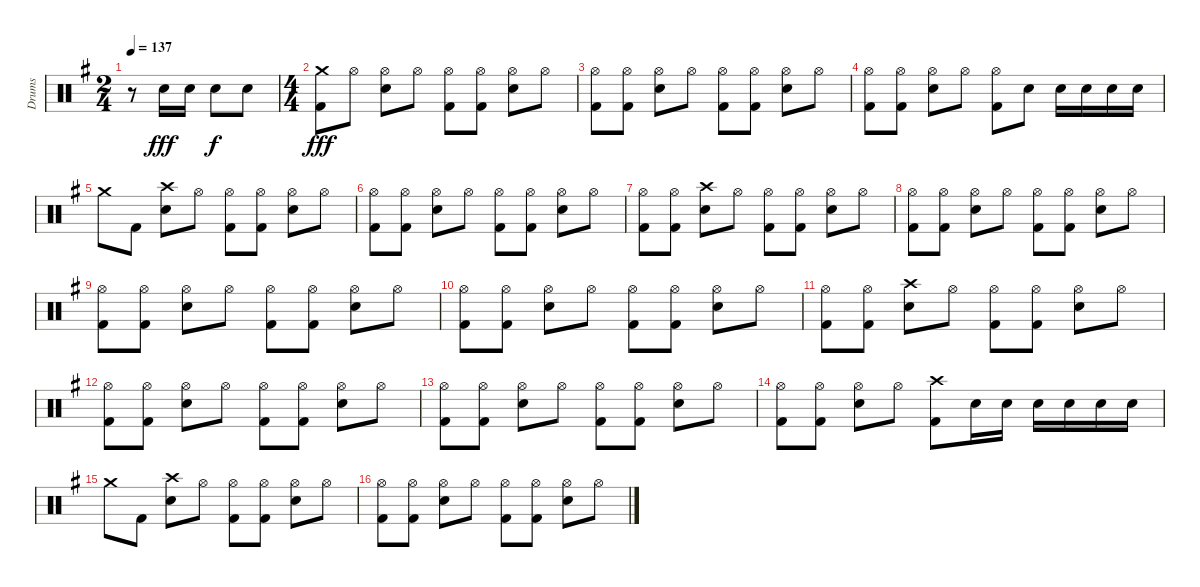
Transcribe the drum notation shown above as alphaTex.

\track ("Drums" "Drums") {instrument percussion}
\staff {score}
\articulation defaults
\ts (2 4)
\tempo 137
\clef neutral
\ks g
r.8{dy fff} "Electric Snare (hit)".16 "Electric Snare (hit)".16 "Electric Snare (hit)".8{dy f} "Electric Snare (hit)".8 |
\ts (4 4)
("Crash medium (hit)" "Kick (hit) 2").8{dy fff} "Hi-Hat (open)".8 ("Hi-Hat (open)" "Electric Snare (hit)").8 "Hi-Hat (open)".8 ("Hi-Hat (open)" "Kick (hit) 2").8 ("Hi-Hat (open)" "Kick (hit) 2").8 ("Hi-Hat (open)" "Electric Snare (hit)").8 "Hi-Hat (open)".8 |
("Hi-Hat (open)" "Kick (hit) 2").8 ("Hi-Hat (open)" "Kick (hit) 2").8 ("Hi-Hat (open)" "Electric Snare (hit)").8 "Hi-Hat (open)".8 ("Hi-Hat (open)" "Kick (hit) 2").8 ("Hi-Hat (open)" "Kick (hit) 2").8 ("Hi-Hat (open)" "Electric Snare (hit)").8 "Hi-Hat (open)".8 |
("Hi-Hat (open)" "Kick (hit) 2").8 ("Hi-Hat (open)" "Kick (hit) 2").8 ("Hi-Hat (open)" "Electric Snare (hit)").8 "Hi-Hat (open)".8 ("Hi-Hat (open)" "Kick (hit) 2").8 "Electric Snare (hit)".8 "Electric Snare (hit)".16 "Electric Snare (hit)".16 "Electric Snare (hit)".16 "Electric Snare (hit)".16 |
"Crash medium (hit)".8 "Kick (hit) 2".8 ("Crash high (hit)" "Electric Snare (hit)").8 "Hi-Hat (open)".8 ("Hi-Hat (open)" "Kick (hit) 2").8 ("Hi-Hat (open)" "Kick (hit) 2").8 ("Hi-Hat (open)" "Electric Snare (hit)").8 "Hi-Hat (open)".8 |
("Hi-Hat (open)" "Kick (hit) 2").8 ("Hi-Hat (open)" "Kick (hit) 2").8 ("Hi-Hat (open)" "Electric Snare (hit)").8 "Hi-Hat (open)".8 ("Hi-Hat (open)" "Kick (hit) 2").8 ("Hi-Hat (open)" "Kick (hit) 2").8 ("Hi-Hat (open)" "Electric Snare (hit)").8 "Hi-Hat (open)".8 |
("Hi-Hat (open)" "Kick (hit) 2").8 ("Hi-Hat (open)" "Kick (hit) 2").8 ("Crash high (hit)" "Electric Snare (hit)").8 "Hi-Hat (open)".8 ("Hi-Hat (open)" "Kick (hit) 2").8 ("Hi-Hat (open)" "Kick (hit) 2").8 ("Hi-Hat (open)" "Electric Snare (hit)").8 "Hi-Hat (open)".8 |
("Hi-Hat (open)" "Kick (hit) 2").8 ("Hi-Hat (open)" "Kick (hit) 2").8 ("Hi-Hat (open)" "Electric Snare (hit)").8 "Hi-Hat (open)".8 ("Hi-Hat (open)" "Kick (hit) 2").8 ("Hi-Hat (open)" "Kick (hit) 2").8 ("Hi-Hat (open)" "Electric Snare (hit)").8 "Hi-Hat (open)".8 |
("Hi-Hat (open)" "Kick (hit) 2").8 ("Hi-Hat (open)" "Kick (hit) 2").8 ("Hi-Hat (open)" "Electric Snare (hit)").8 "Hi-Hat (open)".8 ("Hi-Hat (open)" "Kick (hit) 2").8 ("Hi-Hat (open)" "Kick (hit) 2").8 ("Hi-Hat (open)" "Electric Snare (hit)").8 "Hi-Hat (open)".8 |
("Hi-Hat (open)" "Kick (hit) 2").8 ("Hi-Hat (open)" "Kick (hit) 2").8 ("Hi-Hat (open)" "Electric Snare (hit)").8 "Hi-Hat (open)".8 ("Hi-Hat (open)" "Kick (hit) 2").8 ("Hi-Hat (open)" "Kick (hit) 2").8 ("Hi-Hat (open)" "Electric Snare (hit)").8 "Hi-Hat (open)".8 |
("Hi-Hat (open)" "Kick (hit) 2").8 ("Hi-Hat (open)" "Kick (hit) 2").8 ("Crash high (hit)" "Electric Snare (hit)").8 "Hi-Hat (open)".8 ("Hi-Hat (open)" "Kick (hit) 2").8 ("Hi-Hat (open)" "Kick (hit) 2").8 ("Hi-Hat (open)" "Electric Snare (hit)").8 "Hi-Hat (open)".8 |
("Hi-Hat (open)" "Kick (hit) 2").8 ("Hi-Hat (open)" "Kick (hit) 2").8 ("Hi-Hat (open)" "Electric Snare (hit)").8 "Hi-Hat (open)".8 ("Hi-Hat (open)" "Kick (hit) 2").8 ("Hi-Hat (open)" "Kick (hit) 2").8 ("Hi-Hat (open)" "Electric Snare (hit)").8 "Hi-Hat (open)".8 |
("Hi-Hat (open)" "Kick (hit) 2").8 ("Hi-Hat (open)" "Kick (hit) 2").8 ("Hi-Hat (open)" "Electric Snare (hit)").8 "Hi-Hat (open)".8 ("Hi-Hat (open)" "Kick (hit) 2").8 ("Hi-Hat (open)" "Kick (hit) 2").8 ("Hi-Hat (open)" "Electric Snare (hit)").8 "Hi-Hat (open)".8 |
("Hi-Hat (open)" "Kick (hit) 2").8 ("Hi-Hat (open)" "Kick (hit) 2").8 ("Hi-Hat (open)" "Electric Snare (hit)").8 "Hi-Hat (open)".8 ("Crash high (hit)" "Kick (hit) 2").8 "Electric Snare (hit)".16 "Electric Snare (hit)".16 "Electric Snare (hit)".16 "Electric Snare (hit)".16 "Electric Snare (hit)".16 "Electric Snare (hit)".16 |
"Crash medium (hit)".8 "Kick (hit) 2".8 ("Crash high (hit)" "Electric Snare (hit)").8 "Hi-Hat (open)".8 ("Hi-Hat (open)" "Kick (hit) 2").8 ("Hi-Hat (open)" "Kick (hit) 2").8 ("Hi-Hat (open)" "Electric Snare (hit)").8 "Hi-Hat (open)".8 |
("Hi-Hat (open)" "Kick (hit) 2").8 ("Hi-Hat (open)" "Kick (hit) 2").8 ("Hi-Hat (open)" "Electric Snare (hit)").8 "Hi-Hat (open)".8 ("Hi-Hat (open)" "Kick (hit) 2").8 ("Hi-Hat (open)" "Kick (hit) 2").8 ("Hi-Hat (open)" "Electric Snare (hit)").8 "Hi-Hat (open)".8
